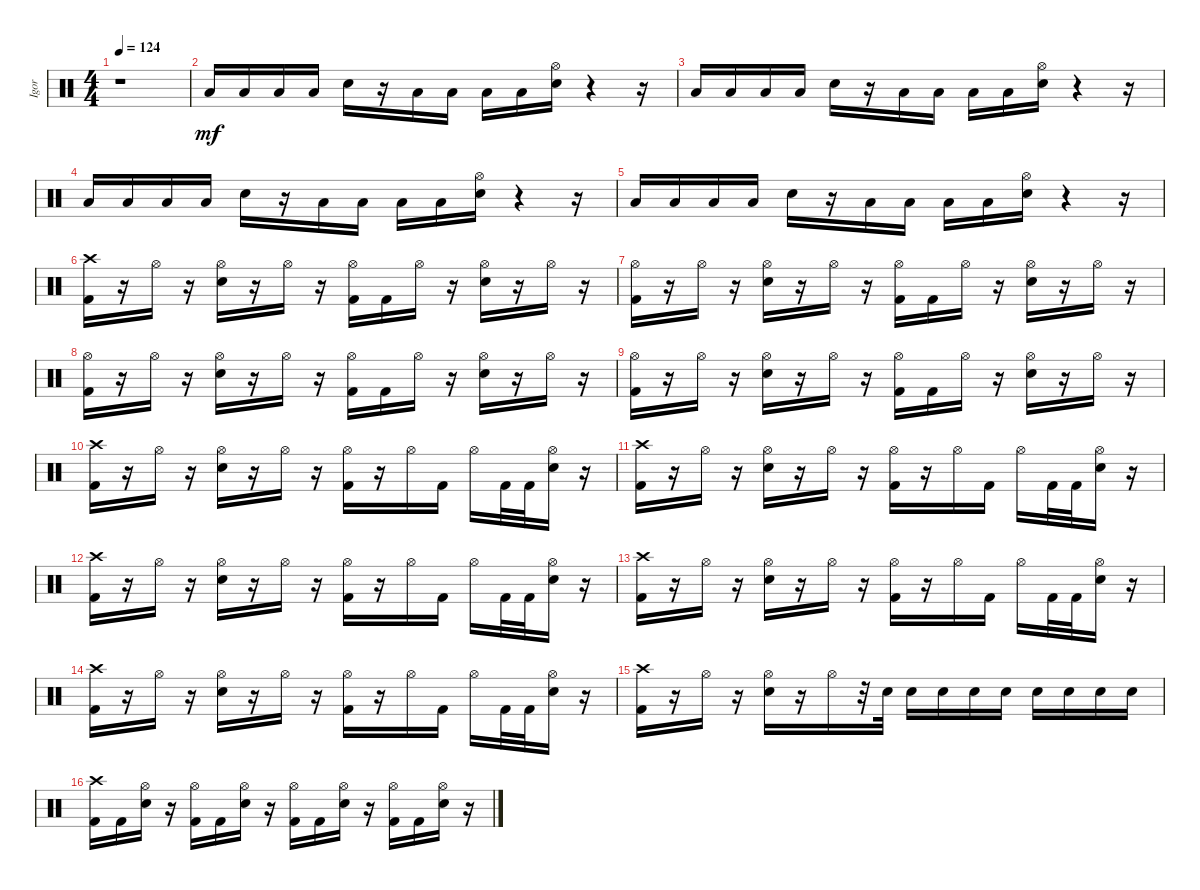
\track ("Igor" "Igor") {instrument percussion}
\staff {score}
\articulation defaults
\ts (4 4)
\tempo 124
\clef neutral
\ks c
r.1{dy mf} |
"Low Tom (hit)".16 "Low Tom (hit)".16 "Low Tom (hit)".16 "Low Tom (hit)".16 "Snare (hit) 2".16 r.16 "Low Floor Tom (hit)".16 "Low Floor Tom (hit)".16 "Low Floor Tom (hit)".16 "Low Floor Tom (hit)".16 ("Snare (hit) 2" "Hi-Hat (open)").16 r.4 r.16 |
"Low Tom (hit)".16 "Low Tom (hit)".16 "Low Tom (hit)".16 "Low Tom (hit)".16 "Snare (hit) 2".16 r.16 "Low Floor Tom (hit)".16 "Low Floor Tom (hit)".16 "Low Floor Tom (hit)".16 "Low Floor Tom (hit)".16 ("Snare (hit) 2" "Hi-Hat (open)").16 r.4 r.16 |
"Low Tom (hit)".16 "Low Tom (hit)".16 "Low Tom (hit)".16 "Low Tom (hit)".16 "Snare (hit) 2".16 r.16 "Low Floor Tom (hit)".16 "Low Floor Tom (hit)".16 "Low Floor Tom (hit)".16 "Low Floor Tom (hit)".16 ("Snare (hit) 2" "Hi-Hat (open)").16 r.4 r.16 |
"Low Tom (hit)".16 "Low Tom (hit)".16 "Low Tom (hit)".16 "Low Tom (hit)".16 "Snare (hit) 2".16 r.16 "Low Floor Tom (hit)".16 "Low Floor Tom (hit)".16 "Low Floor Tom (hit)".16 "Low Floor Tom (hit)".16 ("Snare (hit) 2" "Hi-Hat (open)").16 r.4 r.16 |
("Crash high (hit)" "Kick (hit) 2").16 r.16 "Hi-Hat (open)".16 r.16 ("Hi-Hat (open)" "Snare (hit) 2").16 r.16 "Hi-Hat (open)".16 r.16 ("Hi-Hat (open)" "Kick (hit) 2").16 "Kick (hit) 2".16 "Hi-Hat (open)".16 r.16 ("Hi-Hat (open)" "Snare (hit) 2").16 r.16 "Hi-Hat (open)".16 r.16 |
("Kick (hit) 2" "Hi-Hat (open)").16 r.16 "Hi-Hat (open)".16 r.16 ("Hi-Hat (open)" "Snare (hit) 2").16 r.16 "Hi-Hat (open)".16 r.16 ("Hi-Hat (open)" "Kick (hit) 2").16 "Kick (hit) 2".16 "Hi-Hat (open)".16 r.16 ("Hi-Hat (open)" "Snare (hit) 2").16 r.16 "Hi-Hat (open)".16 r.16 |
("Kick (hit) 2" "Hi-Hat (open)").16 r.16 "Hi-Hat (open)".16 r.16 ("Hi-Hat (open)" "Snare (hit) 2").16 r.16 "Hi-Hat (open)".16 r.16 ("Hi-Hat (open)" "Kick (hit) 2").16 "Kick (hit) 2".16 "Hi-Hat (open)".16 r.16 ("Hi-Hat (open)" "Snare (hit) 2").16 r.16 "Hi-Hat (open)".16 r.16 |
("Kick (hit) 2" "Hi-Hat (open)").16 r.16 "Hi-Hat (open)".16 r.16 ("Hi-Hat (open)" "Snare (hit) 2").16 r.16 "Hi-Hat (open)".16 r.16 ("Hi-Hat (open)" "Kick (hit) 2").16 "Kick (hit) 2".16 "Hi-Hat (open)".16 r.16 ("Hi-Hat (open)" "Snare (hit) 2").16 r.16 "Hi-Hat (open)".16 r.16 |
("Crash high (hit)" "Kick (hit) 2").16 r.16 "Hi-Hat (open)".16 r.16 ("Snare (hit) 2" "Hi-Hat (open)").16 r.16 "Hi-Hat (open)".16 r.16 ("Kick (hit) 2" "Hi-Hat (open)").16 r.16 "Hi-Hat (open)".16 "Kick (hit) 2".16 "Hi-Hat (open)".16 "Kick (hit) 2".32 "Kick (hit) 2".32 ("Snare (hit) 2" "Hi-Hat (open)").16 r.16 |
("Crash high (hit)" "Kick (hit) 2").16 r.16 "Hi-Hat (open)".16 r.16 ("Snare (hit) 2" "Hi-Hat (open)").16 r.16 "Hi-Hat (open)".16 r.16 ("Kick (hit) 2" "Hi-Hat (open)").16 r.16 "Hi-Hat (open)".16 "Kick (hit) 2".16 "Hi-Hat (open)".16 "Kick (hit) 2".32 "Kick (hit) 2".32 ("Snare (hit) 2" "Hi-Hat (open)").16 r.16 |
("Crash high (hit)" "Kick (hit) 2").16 r.16 "Hi-Hat (open)".16 r.16 ("Snare (hit) 2" "Hi-Hat (open)").16 r.16 "Hi-Hat (open)".16 r.16 ("Kick (hit) 2" "Hi-Hat (open)").16 r.16 "Hi-Hat (open)".16 "Kick (hit) 2".16 "Hi-Hat (open)".16 "Kick (hit) 2".32 "Kick (hit) 2".32 ("Snare (hit) 2" "Hi-Hat (open)").16 r.16 |
("Crash high (hit)" "Kick (hit) 2").16 r.16 "Hi-Hat (open)".16 r.16 ("Snare (hit) 2" "Hi-Hat (open)").16 r.16 "Hi-Hat (open)".16 r.16 ("Kick (hit) 2" "Hi-Hat (open)").16 r.16 "Hi-Hat (open)".16 "Kick (hit) 2".16 "Hi-Hat (open)".16 "Kick (hit) 2".32 "Kick (hit) 2".32 ("Snare (hit) 2" "Hi-Hat (open)").16 r.16 |
("Crash high (hit)" "Kick (hit) 2").16 r.16 "Hi-Hat (open)".16 r.16 ("Snare (hit) 2" "Hi-Hat (open)").16 r.16 "Hi-Hat (open)".16 r.16 ("Kick (hit) 2" "Hi-Hat (open)").16 r.16 "Hi-Hat (open)".16 "Kick (hit) 2".16 "Hi-Hat (open)".16 "Kick (hit) 2".32 "Kick (hit) 2".32 ("Snare (hit) 2" "Hi-Hat (open)").16 r.16 |
("Crash high (hit)" "Kick (hit) 2").16 r.16 "Hi-Hat (open)".16 r.16 ("Snare (hit) 2" "Hi-Hat (open)").16 r.16 "Hi-Hat (open)".16 r.32 "Snare (hit) 2".32 "Snare (hit) 2".16 "Snare (hit) 2".16 "Snare (hit) 2".16 "Snare (hit) 2".16 "Snare (hit) 2".16 "Snare (hit) 2".16 "Snare (hit) 2".16 "Snare (hit) 2".16 |
("Kick (hit) 2" "Crash high (hit)").16 "Kick (hit) 2".16 ("Snare (hit) 2" "Hi-Hat (open)").16 r.16 ("Hi-Hat (open)" "Kick (hit) 2").16 "Kick (hit) 2".16 ("Snare (hit) 2" "Hi-Hat (open)").16 r.16 ("Kick (hit) 2" "Hi-Hat (open)").16 "Kick (hit) 2".16 ("Snare (hit) 2" "Hi-Hat (open)").16 r.16 ("Hi-Hat (open)" "Kick (hit) 2").16 "Kick (hit) 2".16 ("Snare (hit) 2" "Hi-Hat (open)").16 r.16
